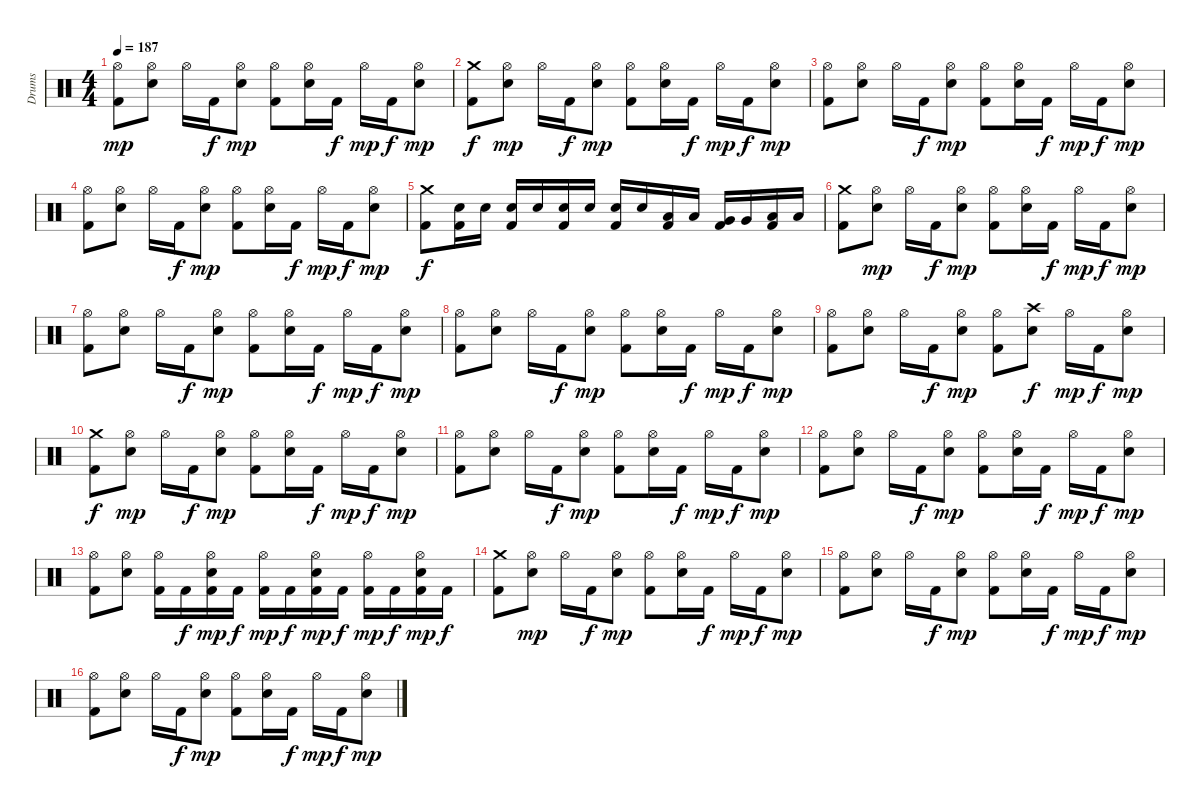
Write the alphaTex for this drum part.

\track ("Drums" "Drums") {instrument percussion}
\staff {score}
\articulation defaults
\ts (4 4)
\tempo 187
\clef neutral
\ks c
("Hi-Hat (open)" "Kick (hit) 2").8{dy mp} ("Hi-Hat (open)" "Snare (hit) 2").8 "Hi-Hat (open)".16 "Kick (hit) 2".16{dy f} ("Hi-Hat (open)" "Snare (hit) 2").8{dy mp} ("Hi-Hat (open)" "Kick (hit) 2").8 ("Hi-Hat (open)" "Snare (hit) 2").16 "Kick (hit) 2".16{dy f} "Hi-Hat (open)".16{dy mp} "Kick (hit) 2".16{dy f} ("Hi-Hat (open)" "Snare (hit) 2").8{dy mp} |
("Crash medium (hit)" "Kick (hit) 2").8{dy f} ("Hi-Hat (open)" "Snare (hit) 2").8{dy mp} "Hi-Hat (open)".16 "Kick (hit) 2".16{dy f} ("Hi-Hat (open)" "Snare (hit) 2").8{dy mp} ("Hi-Hat (open)" "Kick (hit) 2").8 ("Hi-Hat (open)" "Snare (hit) 2").16 "Kick (hit) 2".16{dy f} "Hi-Hat (open)".16{dy mp} "Kick (hit) 2".16{dy f} ("Hi-Hat (open)" "Snare (hit) 2").8{dy mp} |
("Hi-Hat (open)" "Kick (hit) 2").8 ("Hi-Hat (open)" "Snare (hit) 2").8 "Hi-Hat (open)".16 "Kick (hit) 2".16{dy f} ("Hi-Hat (open)" "Snare (hit) 2").8{dy mp} ("Hi-Hat (open)" "Kick (hit) 2").8 ("Hi-Hat (open)" "Snare (hit) 2").16 "Kick (hit) 2".16{dy f} "Hi-Hat (open)".16{dy mp} "Kick (hit) 2".16{dy f} ("Hi-Hat (open)" "Snare (hit) 2").8{dy mp} |
("Hi-Hat (open)" "Kick (hit) 2").8 ("Hi-Hat (open)" "Snare (hit) 2").8 "Hi-Hat (open)".16 "Kick (hit) 2".16{dy f} ("Hi-Hat (open)" "Snare (hit) 2").8{dy mp} ("Hi-Hat (open)" "Kick (hit) 2").8 ("Hi-Hat (open)" "Snare (hit) 2").16 "Kick (hit) 2".16{dy f} "Hi-Hat (open)".16{dy mp} "Kick (hit) 2".16{dy f} ("Hi-Hat (open)" "Snare (hit) 2").8{dy mp} |
("Crash medium (hit)" "Kick (hit) 2").8{dy f} ("Snare (hit) 2" "Kick (hit) 2").16 "Snare (hit) 2".16 ("Snare (hit) 2" "Kick (hit) 2").16 "Snare (hit) 2".16 ("Snare (hit) 2" "Kick (hit) 2").16 "Snare (hit) 2".16 ("Snare (hit) 2" "Kick (hit) 2").16 "Snare (hit) 2".16 ("Low Tom (hit)" "Kick (hit) 2").16 "Low Tom (hit)".16 ("Very Low Tom (hit)" "Kick (hit) 2").16 "Very Low Tom (hit)".16 ("Low Floor Tom (hit)" "Kick (hit) 2").16 "Low Floor Tom (hit)".16 |
("Crash medium (hit)" "Kick (hit) 2").8 ("Hi-Hat (open)" "Snare (hit) 2").8{dy mp} "Hi-Hat (open)".16 "Kick (hit) 2".16{dy f} ("Hi-Hat (open)" "Snare (hit) 2").8{dy mp} ("Hi-Hat (open)" "Kick (hit) 2").8 ("Hi-Hat (open)" "Snare (hit) 2").16 "Kick (hit) 2".16{dy f} "Hi-Hat (open)".16{dy mp} "Kick (hit) 2".16{dy f} ("Hi-Hat (open)" "Snare (hit) 2").8{dy mp} |
("Hi-Hat (open)" "Kick (hit) 2").8 ("Hi-Hat (open)" "Snare (hit) 2").8 "Hi-Hat (open)".16 "Kick (hit) 2".16{dy f} ("Hi-Hat (open)" "Snare (hit) 2").8{dy mp} ("Hi-Hat (open)" "Kick (hit) 2").8 ("Hi-Hat (open)" "Snare (hit) 2").16 "Kick (hit) 2".16{dy f} "Hi-Hat (open)".16{dy mp} "Kick (hit) 2".16{dy f} ("Hi-Hat (open)" "Snare (hit) 2").8{dy mp} |
("Hi-Hat (open)" "Kick (hit) 2").8 ("Hi-Hat (open)" "Snare (hit) 2").8 "Hi-Hat (open)".16 "Kick (hit) 2".16{dy f} ("Hi-Hat (open)" "Snare (hit) 2").8{dy mp} ("Hi-Hat (open)" "Kick (hit) 2").8 ("Hi-Hat (open)" "Snare (hit) 2").16 "Kick (hit) 2".16{dy f} "Hi-Hat (open)".16{dy mp} "Kick (hit) 2".16{dy f} ("Hi-Hat (open)" "Snare (hit) 2").8{dy mp} |
("Hi-Hat (open)" "Kick (hit) 2").8 ("Hi-Hat (open)" "Snare (hit) 2").8 "Hi-Hat (open)".16 "Kick (hit) 2".16{dy f} ("Hi-Hat (open)" "Snare (hit) 2").8{dy mp} ("Hi-Hat (open)" "Kick (hit) 2").8 ("Crash high (hit)" "Snare (hit) 2").8{dy f} "Hi-Hat (open)".16{dy mp} "Kick (hit) 2".16{dy f} ("Hi-Hat (open)" "Snare (hit) 2").8{dy mp} |
("Crash medium (hit)" "Kick (hit) 2").8{dy f} ("Hi-Hat (open)" "Snare (hit) 2").8{dy mp} "Hi-Hat (open)".16 "Kick (hit) 2".16{dy f} ("Hi-Hat (open)" "Snare (hit) 2").8{dy mp} ("Hi-Hat (open)" "Kick (hit) 2").8 ("Hi-Hat (open)" "Snare (hit) 2").16 "Kick (hit) 2".16{dy f} "Hi-Hat (open)".16{dy mp} "Kick (hit) 2".16{dy f} ("Hi-Hat (open)" "Snare (hit) 2").8{dy mp} |
("Hi-Hat (open)" "Kick (hit) 2").8 ("Hi-Hat (open)" "Snare (hit) 2").8 "Hi-Hat (open)".16 "Kick (hit) 2".16{dy f} ("Hi-Hat (open)" "Snare (hit) 2").8{dy mp} ("Hi-Hat (open)" "Kick (hit) 2").8 ("Hi-Hat (open)" "Snare (hit) 2").16 "Kick (hit) 2".16{dy f} "Hi-Hat (open)".16{dy mp} "Kick (hit) 2".16{dy f} ("Hi-Hat (open)" "Snare (hit) 2").8{dy mp} |
("Hi-Hat (open)" "Kick (hit) 2").8 ("Hi-Hat (open)" "Snare (hit) 2").8 "Hi-Hat (open)".16 "Kick (hit) 2".16{dy f} ("Hi-Hat (open)" "Snare (hit) 2").8{dy mp} ("Hi-Hat (open)" "Kick (hit) 2").8 ("Hi-Hat (open)" "Snare (hit) 2").16 "Kick (hit) 2".16{dy f} "Hi-Hat (open)".16{dy mp} "Kick (hit) 2".16{dy f} ("Hi-Hat (open)" "Snare (hit) 2").8{dy mp} |
("Hi-Hat (open)" "Kick (hit) 2").8 ("Hi-Hat (open)" "Snare (hit) 2").8 ("Hi-Hat (open)" "Kick (hit) 2").16 "Kick (hit) 2".16{dy f} ("Hi-Hat (open)" "Snare (hit) 2" "Kick (hit) 2").16{dy mp} "Kick (hit) 2".16{dy f} ("Hi-Hat (open)" "Kick (hit) 2").16{dy mp} "Kick (hit) 2".16{dy f} ("Hi-Hat (open)" "Snare (hit) 2" "Kick (hit) 2").16{dy mp} "Kick (hit) 2".16{dy f} ("Hi-Hat (open)" "Kick (hit) 2").16{dy mp} "Kick (hit) 2".16{dy f} ("Hi-Hat (open)" "Snare (hit) 2" "Kick (hit) 2").16{dy mp} "Kick (hit) 2".16{dy f} |
("Crash medium (hit)" "Kick (hit) 2").8 ("Hi-Hat (open)" "Snare (hit) 2").8{dy mp} "Hi-Hat (open)".16 "Kick (hit) 2".16{dy f} ("Hi-Hat (open)" "Snare (hit) 2").8{dy mp} ("Hi-Hat (open)" "Kick (hit) 2").8 ("Hi-Hat (open)" "Snare (hit) 2").16 "Kick (hit) 2".16{dy f} "Hi-Hat (open)".16{dy mp} "Kick (hit) 2".16{dy f} ("Hi-Hat (open)" "Snare (hit) 2").8{dy mp} |
("Hi-Hat (open)" "Kick (hit) 2").8 ("Hi-Hat (open)" "Snare (hit) 2").8 "Hi-Hat (open)".16 "Kick (hit) 2".16{dy f} ("Hi-Hat (open)" "Snare (hit) 2").8{dy mp} ("Hi-Hat (open)" "Kick (hit) 2").8 ("Hi-Hat (open)" "Snare (hit) 2").16 "Kick (hit) 2".16{dy f} "Hi-Hat (open)".16{dy mp} "Kick (hit) 2".16{dy f} ("Hi-Hat (open)" "Snare (hit) 2").8{dy mp} |
("Hi-Hat (open)" "Kick (hit) 2").8 ("Hi-Hat (open)" "Snare (hit) 2").8 "Hi-Hat (open)".16 "Kick (hit) 2".16{dy f} ("Hi-Hat (open)" "Snare (hit) 2").8{dy mp} ("Hi-Hat (open)" "Kick (hit) 2").8 ("Hi-Hat (open)" "Snare (hit) 2").16 "Kick (hit) 2".16{dy f} "Hi-Hat (open)".16{dy mp} "Kick (hit) 2".16{dy f} ("Hi-Hat (open)" "Snare (hit) 2").8{dy mp}
